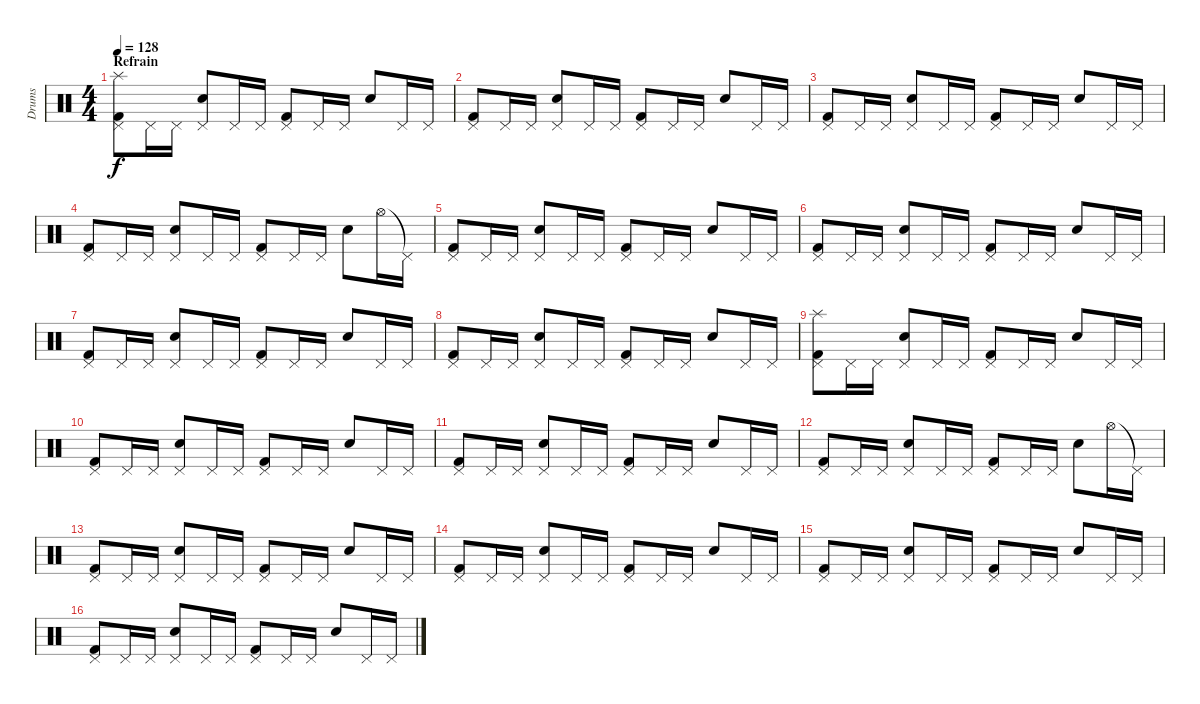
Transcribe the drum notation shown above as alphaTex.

\track ("Drums" "Drums") {instrument percussion}
\staff {score}
\articulation defaults
\ts (4 4)
\section ("" "Refrain")
\tempo 128
\clef neutral
\ks c
("Splash (hit)" "Kick (hit) 2" "Pedal Hi-Hat (hit)").8{dy f} "Pedal Hi-Hat (hit)".16 "Pedal Hi-Hat (hit)".16 ("Snare (hit) 2" "Pedal Hi-Hat (hit)").8 "Pedal Hi-Hat (hit)".16 "Pedal Hi-Hat (hit)".16 ("Kick (hit) 2" "Pedal Hi-Hat (hit)").8 "Pedal Hi-Hat (hit)".16 "Pedal Hi-Hat (hit)".16 "Snare (hit) 2".8 "Pedal Hi-Hat (hit)".16 "Pedal Hi-Hat (hit)".16 |
("Kick (hit) 2" "Pedal Hi-Hat (hit)").8 "Pedal Hi-Hat (hit)".16 "Pedal Hi-Hat (hit)".16 ("Snare (hit) 2" "Pedal Hi-Hat (hit)").8 "Pedal Hi-Hat (hit)".16 "Pedal Hi-Hat (hit)".16 ("Kick (hit) 2" "Pedal Hi-Hat (hit)").8 "Pedal Hi-Hat (hit)".16 "Pedal Hi-Hat (hit)".16 "Snare (hit) 2".8 "Pedal Hi-Hat (hit)".16 "Pedal Hi-Hat (hit)".16 |
("Kick (hit) 2" "Pedal Hi-Hat (hit)").8 "Pedal Hi-Hat (hit)".16 "Pedal Hi-Hat (hit)".16 ("Snare (hit) 2" "Pedal Hi-Hat (hit)").8 "Pedal Hi-Hat (hit)".16 "Pedal Hi-Hat (hit)".16 ("Kick (hit) 2" "Pedal Hi-Hat (hit)").8 "Pedal Hi-Hat (hit)".16 "Pedal Hi-Hat (hit)".16 "Snare (hit) 2".8 "Pedal Hi-Hat (hit)".16 "Pedal Hi-Hat (hit)".16 |
("Kick (hit) 2" "Pedal Hi-Hat (hit)").8 "Pedal Hi-Hat (hit)".16 "Pedal Hi-Hat (hit)".16 ("Snare (hit) 2" "Pedal Hi-Hat (hit)").8 "Pedal Hi-Hat (hit)".16 "Pedal Hi-Hat (hit)".16 ("Kick (hit) 2" "Pedal Hi-Hat (hit)").8 "Pedal Hi-Hat (hit)".16 "Pedal Hi-Hat (hit)".16 "Snare (hit) 2".8 "Hi-Hat (open)".16 "Pedal Hi-Hat (hit)"{t}.16 |
("Kick (hit) 2" "Pedal Hi-Hat (hit)").8 "Pedal Hi-Hat (hit)".16 "Pedal Hi-Hat (hit)".16 ("Snare (hit) 2" "Pedal Hi-Hat (hit)").8 "Pedal Hi-Hat (hit)".16 "Pedal Hi-Hat (hit)".16 ("Kick (hit) 2" "Pedal Hi-Hat (hit)").8 "Pedal Hi-Hat (hit)".16 "Pedal Hi-Hat (hit)".16 "Snare (hit) 2".8 "Pedal Hi-Hat (hit)".16 "Pedal Hi-Hat (hit)".16 |
("Kick (hit) 2" "Pedal Hi-Hat (hit)").8 "Pedal Hi-Hat (hit)".16 "Pedal Hi-Hat (hit)".16 ("Snare (hit) 2" "Pedal Hi-Hat (hit)").8 "Pedal Hi-Hat (hit)".16 "Pedal Hi-Hat (hit)".16 ("Kick (hit) 2" "Pedal Hi-Hat (hit)").8 "Pedal Hi-Hat (hit)".16 "Pedal Hi-Hat (hit)".16 "Snare (hit) 2".8 "Pedal Hi-Hat (hit)".16 "Pedal Hi-Hat (hit)".16 |
("Kick (hit) 2" "Pedal Hi-Hat (hit)").8 "Pedal Hi-Hat (hit)".16 "Pedal Hi-Hat (hit)".16 ("Snare (hit) 2" "Pedal Hi-Hat (hit)").8 "Pedal Hi-Hat (hit)".16 "Pedal Hi-Hat (hit)".16 ("Kick (hit) 2" "Pedal Hi-Hat (hit)").8 "Pedal Hi-Hat (hit)".16 "Pedal Hi-Hat (hit)".16 "Snare (hit) 2".8 "Pedal Hi-Hat (hit)".16 "Pedal Hi-Hat (hit)".16 |
("Kick (hit) 2" "Pedal Hi-Hat (hit)").8 "Pedal Hi-Hat (hit)".16 "Pedal Hi-Hat (hit)".16 ("Snare (hit) 2" "Pedal Hi-Hat (hit)").8 "Pedal Hi-Hat (hit)".16 "Pedal Hi-Hat (hit)".16 ("Kick (hit) 2" "Pedal Hi-Hat (hit)").8 "Pedal Hi-Hat (hit)".16 "Pedal Hi-Hat (hit)".16 "Snare (hit) 2".8 "Pedal Hi-Hat (hit)".16 "Pedal Hi-Hat (hit)".16 |
("Splash (hit)" "Kick (hit) 2" "Pedal Hi-Hat (hit)").8 "Pedal Hi-Hat (hit)".16 "Pedal Hi-Hat (hit)".16 ("Snare (hit) 2" "Pedal Hi-Hat (hit)").8 "Pedal Hi-Hat (hit)".16 "Pedal Hi-Hat (hit)".16 ("Kick (hit) 2" "Pedal Hi-Hat (hit)").8 "Pedal Hi-Hat (hit)".16 "Pedal Hi-Hat (hit)".16 "Snare (hit) 2".8 "Pedal Hi-Hat (hit)".16 "Pedal Hi-Hat (hit)".16 |
("Kick (hit) 2" "Pedal Hi-Hat (hit)").8 "Pedal Hi-Hat (hit)".16 "Pedal Hi-Hat (hit)".16 ("Snare (hit) 2" "Pedal Hi-Hat (hit)").8 "Pedal Hi-Hat (hit)".16 "Pedal Hi-Hat (hit)".16 ("Kick (hit) 2" "Pedal Hi-Hat (hit)").8 "Pedal Hi-Hat (hit)".16 "Pedal Hi-Hat (hit)".16 "Snare (hit) 2".8 "Pedal Hi-Hat (hit)".16 "Pedal Hi-Hat (hit)".16 |
("Kick (hit) 2" "Pedal Hi-Hat (hit)").8 "Pedal Hi-Hat (hit)".16 "Pedal Hi-Hat (hit)".16 ("Snare (hit) 2" "Pedal Hi-Hat (hit)").8 "Pedal Hi-Hat (hit)".16 "Pedal Hi-Hat (hit)".16 ("Kick (hit) 2" "Pedal Hi-Hat (hit)").8 "Pedal Hi-Hat (hit)".16 "Pedal Hi-Hat (hit)".16 "Snare (hit) 2".8 "Pedal Hi-Hat (hit)".16 "Pedal Hi-Hat (hit)".16 |
("Kick (hit) 2" "Pedal Hi-Hat (hit)").8 "Pedal Hi-Hat (hit)".16 "Pedal Hi-Hat (hit)".16 ("Snare (hit) 2" "Pedal Hi-Hat (hit)").8 "Pedal Hi-Hat (hit)".16 "Pedal Hi-Hat (hit)".16 ("Kick (hit) 2" "Pedal Hi-Hat (hit)").8 "Pedal Hi-Hat (hit)".16 "Pedal Hi-Hat (hit)".16 "Snare (hit) 2".8 "Hi-Hat (open)".16 "Pedal Hi-Hat (hit)"{t}.16 |
("Kick (hit) 2" "Pedal Hi-Hat (hit)").8 "Pedal Hi-Hat (hit)".16 "Pedal Hi-Hat (hit)".16 ("Snare (hit) 2" "Pedal Hi-Hat (hit)").8 "Pedal Hi-Hat (hit)".16 "Pedal Hi-Hat (hit)".16 ("Kick (hit) 2" "Pedal Hi-Hat (hit)").8 "Pedal Hi-Hat (hit)".16 "Pedal Hi-Hat (hit)".16 "Snare (hit) 2".8 "Pedal Hi-Hat (hit)".16 "Pedal Hi-Hat (hit)".16 |
("Kick (hit) 2" "Pedal Hi-Hat (hit)").8 "Pedal Hi-Hat (hit)".16 "Pedal Hi-Hat (hit)".16 ("Snare (hit) 2" "Pedal Hi-Hat (hit)").8 "Pedal Hi-Hat (hit)".16 "Pedal Hi-Hat (hit)".16 ("Kick (hit) 2" "Pedal Hi-Hat (hit)").8 "Pedal Hi-Hat (hit)".16 "Pedal Hi-Hat (hit)".16 "Snare (hit) 2".8 "Pedal Hi-Hat (hit)".16 "Pedal Hi-Hat (hit)".16 |
("Kick (hit) 2" "Pedal Hi-Hat (hit)").8 "Pedal Hi-Hat (hit)".16 "Pedal Hi-Hat (hit)".16 ("Snare (hit) 2" "Pedal Hi-Hat (hit)").8 "Pedal Hi-Hat (hit)".16 "Pedal Hi-Hat (hit)".16 ("Kick (hit) 2" "Pedal Hi-Hat (hit)").8 "Pedal Hi-Hat (hit)".16 "Pedal Hi-Hat (hit)".16 "Snare (hit) 2".8 "Pedal Hi-Hat (hit)".16 "Pedal Hi-Hat (hit)".16 |
("Kick (hit) 2" "Pedal Hi-Hat (hit)").8 "Pedal Hi-Hat (hit)".16 "Pedal Hi-Hat (hit)".16 ("Snare (hit) 2" "Pedal Hi-Hat (hit)").8 "Pedal Hi-Hat (hit)".16 "Pedal Hi-Hat (hit)".16 ("Kick (hit) 2" "Pedal Hi-Hat (hit)").8 "Pedal Hi-Hat (hit)".16 "Pedal Hi-Hat (hit)".16 "Snare (hit) 2".8 "Pedal Hi-Hat (hit)".16 "Pedal Hi-Hat (hit)".16
